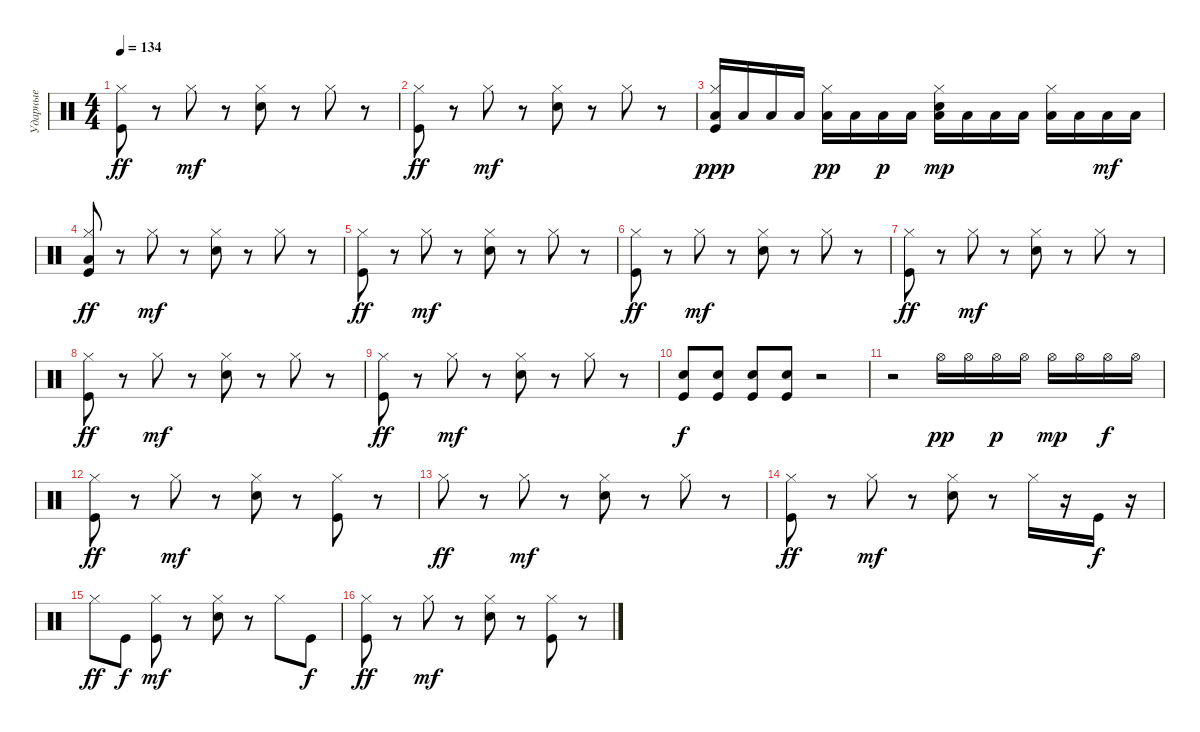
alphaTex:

\track ("Ударные" "Ударные") {instrument percussion}
\staff {score}
\articulation defaults
\ts (4 4)
\tempo 134
\clef neutral
\ks c
("Kick (hit)" "Hi-Hat (closed)").8{dy ff} r.8 "Hi-Hat (closed)".8{dy mf} r.8 ("Hi-Hat (closed)" "Snare (hit) 2").8 r.8 "Hi-Hat (closed)".8 r.8 |
("Kick (hit)" "Hi-Hat (closed)").8{dy ff} r.8 "Hi-Hat (closed)".8{dy mf} r.8 ("Hi-Hat (closed)" "Snare (hit) 2").8 r.8 "Hi-Hat (closed)".8 r.8 |
("Kick (hit)" "Hi-Hat (closed)" "Low Floor Tom (hit)").16{dy ppp} "Low Floor Tom (hit)".16 "Low Floor Tom (hit)".16 "Low Floor Tom (hit)".16 ("Hi-Hat (closed)" "Low Floor Tom (hit)").16{dy pp} "Low Floor Tom (hit)".16 "Low Floor Tom (hit)".16{dy p} "Low Floor Tom (hit)".16 ("Hi-Hat (closed)" "Snare (hit) 2" "Low Floor Tom (hit)").16{dy mp} "Low Floor Tom (hit)".16 "Low Floor Tom (hit)".16 "Low Floor Tom (hit)".16 ("Hi-Hat (closed)" "Low Floor Tom (hit)").16 "Low Floor Tom (hit)".16 "Low Floor Tom (hit)".16{dy mf} "Low Floor Tom (hit)".16 |
("Kick (hit)" "Hi-Hat (closed)" "Low Floor Tom (hit)").8{dy ff} r.8 "Hi-Hat (closed)".8{dy mf} r.8 ("Hi-Hat (closed)" "Snare (hit) 2").8 r.8 "Hi-Hat (closed)".8 r.8 |
("Kick (hit)" "Hi-Hat (closed)").8{dy ff} r.8 "Hi-Hat (closed)".8{dy mf} r.8 ("Hi-Hat (closed)" "Snare (hit) 2").8 r.8 "Hi-Hat (closed)".8 r.8 |
("Kick (hit)" "Hi-Hat (closed)").8{dy ff} r.8 "Hi-Hat (closed)".8{dy mf} r.8 ("Hi-Hat (closed)" "Snare (hit) 2").8 r.8 "Hi-Hat (closed)".8 r.8 |
("Kick (hit)" "Hi-Hat (closed)").8{dy ff} r.8 "Hi-Hat (closed)".8{dy mf} r.8 ("Hi-Hat (closed)" "Snare (hit) 2").8 r.8 "Hi-Hat (closed)".8 r.8 |
("Kick (hit)" "Hi-Hat (closed)").8{dy ff} r.8 "Hi-Hat (closed)".8{dy mf} r.8 ("Hi-Hat (closed)" "Snare (hit) 2").8 r.8 "Hi-Hat (closed)".8 r.8 |
("Kick (hit)" "Hi-Hat (closed)").8{dy ff} r.8 "Hi-Hat (closed)".8{dy mf} r.8 ("Hi-Hat (closed)" "Snare (hit) 2").8 r.8 "Hi-Hat (closed)".8 r.8 |
("Kick (hit)" "Snare (hit) 2").8{dy f} ("Kick (hit)" "Snare (hit) 2").8 ("Kick (hit)" "Snare (hit) 2").8 ("Kick (hit)" "Snare (hit) 2").8 r.2 |
r.2 "Hi-Hat (open)".16{dy pp} "Hi-Hat (open)".16 "Hi-Hat (open)".16{dy p} "Hi-Hat (open)".16 "Hi-Hat (open)".16{dy mp} "Hi-Hat (open)".16 "Hi-Hat (open)".16{dy f} "Hi-Hat (open)".16 |
("Kick (hit)" "Hi-Hat (closed)").8{dy ff} r.8 "Hi-Hat (closed)".8{dy mf} r.8 ("Hi-Hat (closed)" "Snare (hit) 2").8 r.8 ("Hi-Hat (closed)" "Kick (hit)").8 r.8 |
"Hi-Hat (closed)".8{dy ff} r.8 "Hi-Hat (closed)".8{dy mf} r.8 ("Hi-Hat (closed)" "Snare (hit) 2").8 r.8 "Hi-Hat (closed)".8 r.8 |
("Kick (hit)" "Hi-Hat (closed)").8{dy ff} r.8 "Hi-Hat (closed)".8{dy mf} r.8 ("Hi-Hat (closed)" "Snare (hit) 2").8 r.8 "Hi-Hat (closed)".16 r.16 "Kick (hit)".16{dy f} r.16 |
"Hi-Hat (closed)".8{dy ff} "Kick (hit)".8{dy f} ("Hi-Hat (closed)" "Kick (hit)").8{dy mf} r.8 ("Hi-Hat (closed)" "Snare (hit) 2").8 r.8 "Hi-Hat (closed)".8 "Kick (hit)".8{dy f} |
("Kick (hit)" "Hi-Hat (closed)").8{dy ff} r.8 "Hi-Hat (closed)".8{dy mf} r.8 ("Hi-Hat (closed)" "Snare (hit) 2").8 r.8 ("Hi-Hat (closed)" "Kick (hit)").8 r.8
